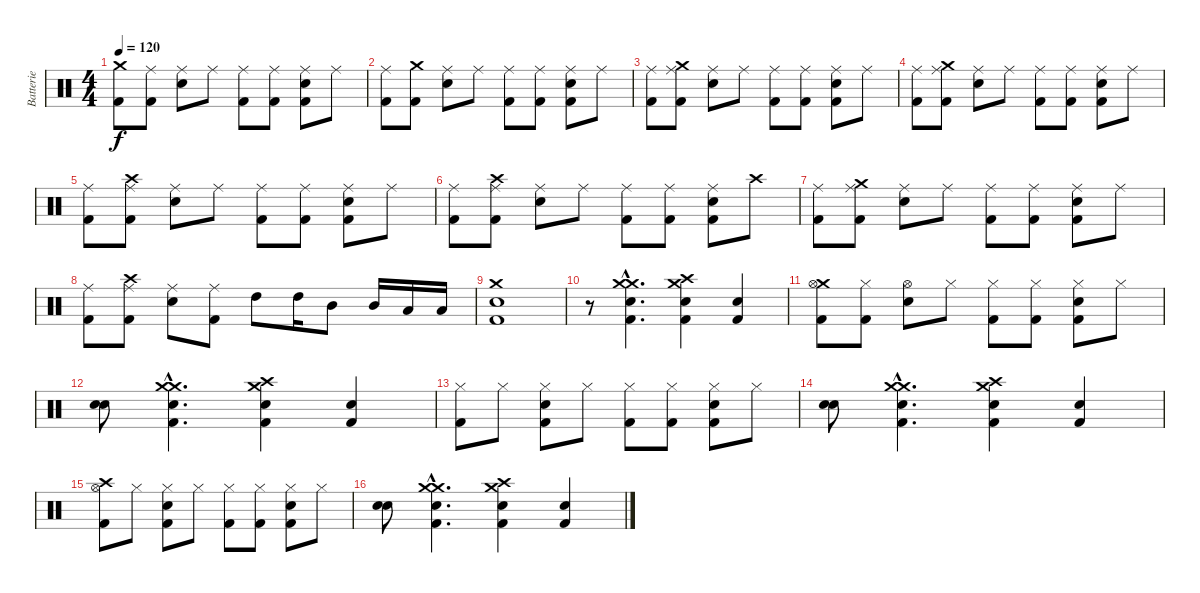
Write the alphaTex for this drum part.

\track ("Batterie" "Batterie") {instrument percussion}
\staff {score}
\articulation defaults
\ts (4 4)
\tempo 120
\clef neutral
\ks c
("Crash medium (hit)" "Kick (hit) 2").8{dy f} ("Ride (middle)" "Kick (hit) 2").8 ("Ride (middle)" "Snare (hit) 2").8 "Ride (middle)".8 ("Ride (middle)" "Kick (hit) 2").8 ("Ride (middle)" "Kick (hit) 2").8 ("Ride (middle)" "Snare (hit) 2" "Kick (hit) 2").8 "Ride (middle)".8 |
("Ride (middle)" "Kick (hit) 2").8 ("Crash medium (hit)" "Kick (hit) 2").8 ("Ride (middle)" "Snare (hit) 2").8 "Ride (middle)".8 ("Ride (middle)" "Kick (hit) 2").8 ("Ride (middle)" "Kick (hit) 2").8 ("Ride (middle)" "Snare (hit) 2" "Kick (hit) 2").8 "Ride (middle)".8 |
("Ride (middle)" "Kick (hit) 2").8 ("Ride (middle)" "Crash medium (hit)" "Kick (hit) 2").8 ("Ride (middle)" "Snare (hit) 2").8 "Ride (middle)".8 ("Ride (middle)" "Kick (hit) 2").8 ("Ride (middle)" "Kick (hit) 2").8 ("Ride (middle)" "Snare (hit) 2" "Kick (hit) 2").8 "Ride (middle)".8 |
("Ride (middle)" "Kick (hit) 2").8 ("Ride (middle)" "Crash medium (hit)" "Kick (hit) 2").8 ("Ride (middle)" "Snare (hit) 2").8 "Ride (middle)".8 ("Ride (middle)" "Kick (hit) 2").8 ("Ride (middle)" "Kick (hit) 2").8 ("Ride (middle)" "Snare (hit) 2" "Kick (hit) 2").8 "Ride (middle)".8 |
("Ride (middle)" "Kick (hit) 2").8 ("Ride (middle)" "Crash high (hit)" "Kick (hit) 2").8 ("Ride (middle)" "Snare (hit) 2").8 "Ride (middle)".8 ("Ride (middle)" "Kick (hit) 2").8 ("Ride (middle)" "Kick (hit) 2").8 ("Ride (middle)" "Snare (hit) 2" "Kick (hit) 2").8 "Ride (middle)".8 |
("Ride (middle)" "Kick (hit) 2").8 ("Ride (middle)" "Crash high (hit)" "Kick (hit) 2").8 ("Ride (middle)" "Snare (hit) 2").8 "Ride (middle)".8 ("Ride (middle)" "Kick (hit) 2").8 ("Ride (middle)" "Kick (hit) 2").8 ("Ride (middle)" "Snare (hit) 2" "Kick (hit) 2").8 "Crash high (hit)".8 |
("Ride (middle)" "Kick (hit) 2").8 ("Ride (middle)" "Crash medium (hit)" "Kick (hit) 2").8 ("Ride (middle)" "Snare (hit) 2").8 "Ride (middle)".8 ("Ride (middle)" "Kick (hit) 2").8 ("Ride (middle)" "Kick (hit) 2").8 ("Ride (middle)" "Snare (hit) 2" "Kick (hit) 2").8 "Ride (middle)".8 |
("Ride (middle)" "Kick (hit) 2").8 ("Ride (middle)" "Crash high (hit)" "Kick (hit) 2").8 ("Ride (middle)" "Snare (hit) 2").8 ("Ride (middle)" "Kick (hit) 2").8 "High Tom (hit)".8 "High Tom (hit)".16 "Mid Tom (hit)".8 "Mid Tom (hit)".16 "Low Tom (hit)".16 "Low Tom (hit)".16 |
("Crash medium (hit)" "Snare (hit) 2" "Kick (hit) 2").1 |
r.8 ("Crash medium (hit)"{hac} "Crash medium (hit)"{hac} "Snare (hit) 2"{hac} "Kick (hit) 2"{hac}).4{d} ("Crash medium (hit)" "Crash high (hit)" "Snare (hit) 2" "Kick (hit) 2").4 ("Snare (hit) 2" "Kick (hit) 2").4 |
("Crash medium (hit)" "Hi-Hat (open)" "Kick (hit) 2").8 ("Hi-Hat (closed)" "Kick (hit) 2").8 ("Hi-Hat (open)" "Snare (hit) 2").8 "Hi-Hat (closed)".8 ("Hi-Hat (closed)" "Kick (hit) 2").8 ("Hi-Hat (closed)" "Kick (hit) 2").8 ("Hi-Hat (closed)" "Snare (hit) 2" "Kick (hit) 2").8 "Hi-Hat (closed)".8 |
("Snare (hit) 2" "Snare (hit) 2").8 ("Crash medium (hit)"{hac} "Crash medium (hit)"{hac} "Snare (hit) 2"{hac} "Kick (hit) 2"{hac}).4{d} ("Crash medium (hit)" "Crash high (hit)" "Snare (hit) 2" "Kick (hit) 2").4 ("Snare (hit) 2" "Kick (hit) 2").4 |
("Hi-Hat (closed)" "Kick (hit) 2").8 "Hi-Hat (closed)".8 ("Hi-Hat (closed)" "Snare (hit) 2" "Kick (hit) 2").8 "Hi-Hat (closed)".8 ("Hi-Hat (closed)" "Kick (hit) 2").8 ("Hi-Hat (closed)" "Kick (hit) 2").8 ("Hi-Hat (closed)" "Snare (hit) 2" "Kick (hit) 2").8 "Hi-Hat (closed)".8 |
("Snare (hit) 2" "Snare (hit) 2").8 ("Crash medium (hit)"{hac} "Crash medium (hit)"{hac} "Snare (hit) 2"{hac} "Kick (hit) 2"{hac}).4{d} ("Crash medium (hit)" "Crash high (hit)" "Snare (hit) 2" "Kick (hit) 2").4 ("Snare (hit) 2" "Kick (hit) 2").4 |
("Hi-Hat (open)" "Crash high (hit)" "Kick (hit) 2").8 "Hi-Hat (closed)".8 ("Hi-Hat (closed)" "Snare (hit) 2" "Kick (hit) 2").8 "Hi-Hat (closed)".8 ("Hi-Hat (closed)" "Kick (hit) 2").8 ("Hi-Hat (closed)" "Kick (hit) 2").8 ("Hi-Hat (closed)" "Snare (hit) 2" "Kick (hit) 2").8 "Hi-Hat (closed)".8 |
("Snare (hit) 2" "Snare (hit) 2").8 ("Crash medium (hit)"{hac} "Crash medium (hit)"{hac} "Snare (hit) 2"{hac} "Kick (hit) 2"{hac}).4{d} ("Crash medium (hit)" "Crash high (hit)" "Snare (hit) 2" "Kick (hit) 2").4 ("Snare (hit) 2" "Kick (hit) 2").4
